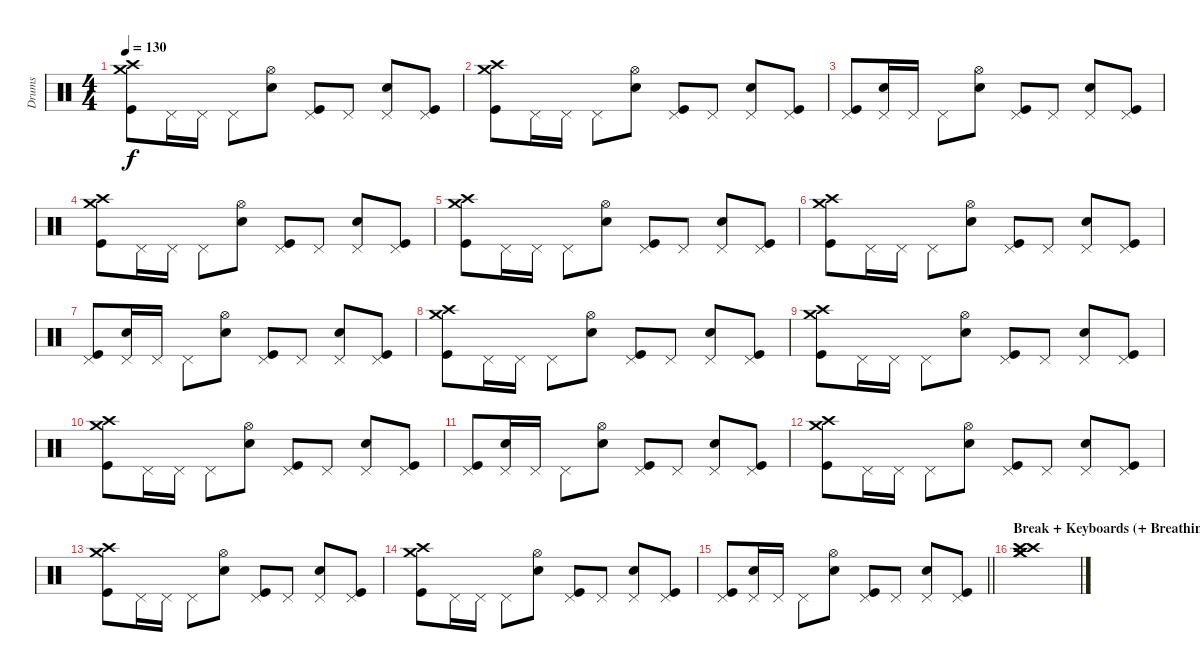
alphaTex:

\track ("Drums" "Drums") {instrument percussion}
\staff {score}
\articulation defaults
\ts (4 4)
\tempo 130
\clef neutral
\ks c
("Kick (hit)" "Crash high (hit)" "Crash medium (hit)").8{dy f} "Pedal Hi-Hat (hit)".16 "Pedal Hi-Hat (hit)".16 "Pedal Hi-Hat (hit)".8 ("Hi-Hat (open)" "Snare (hit) 2").8 ("Pedal Hi-Hat (hit)" "Kick (hit)").8 "Pedal Hi-Hat (hit)".8 ("Pedal Hi-Hat (hit)" "Snare (hit) 2").8 ("Pedal Hi-Hat (hit)" "Kick (hit)").8 |
("Kick (hit)" "Crash high (hit)" "Crash medium (hit)").8 "Pedal Hi-Hat (hit)".16 "Pedal Hi-Hat (hit)".16 "Pedal Hi-Hat (hit)".8 ("Hi-Hat (open)" "Snare (hit) 2").8 ("Pedal Hi-Hat (hit)" "Kick (hit)").8 "Pedal Hi-Hat (hit)".8 ("Pedal Hi-Hat (hit)" "Snare (hit) 2").8 ("Pedal Hi-Hat (hit)" "Kick (hit)").8 |
("Pedal Hi-Hat (hit)" "Kick (hit)").8 ("Pedal Hi-Hat (hit)" "Snare (hit) 2").16 "Pedal Hi-Hat (hit)".16 "Pedal Hi-Hat (hit)".8 ("Hi-Hat (open)" "Snare (hit) 2").8 ("Pedal Hi-Hat (hit)" "Kick (hit)").8 "Pedal Hi-Hat (hit)".8 ("Pedal Hi-Hat (hit)" "Snare (hit) 2").8 ("Pedal Hi-Hat (hit)" "Kick (hit)").8 |
("Kick (hit)" "Crash high (hit)" "Crash medium (hit)").8 "Pedal Hi-Hat (hit)".16 "Pedal Hi-Hat (hit)".16 "Pedal Hi-Hat (hit)".8 ("Hi-Hat (open)" "Snare (hit) 2").8 ("Pedal Hi-Hat (hit)" "Kick (hit)").8 "Pedal Hi-Hat (hit)".8 ("Pedal Hi-Hat (hit)" "Snare (hit) 2").8 ("Pedal Hi-Hat (hit)" "Kick (hit)").8 |
("Kick (hit)" "Crash high (hit)" "Crash medium (hit)").8 "Pedal Hi-Hat (hit)".16 "Pedal Hi-Hat (hit)".16 "Pedal Hi-Hat (hit)".8 ("Hi-Hat (open)" "Snare (hit) 2").8 ("Pedal Hi-Hat (hit)" "Kick (hit)").8 "Pedal Hi-Hat (hit)".8 ("Pedal Hi-Hat (hit)" "Snare (hit) 2").8 ("Pedal Hi-Hat (hit)" "Kick (hit)").8 |
("Kick (hit)" "Crash high (hit)" "Crash medium (hit)").8 "Pedal Hi-Hat (hit)".16 "Pedal Hi-Hat (hit)".16 "Pedal Hi-Hat (hit)".8 ("Hi-Hat (open)" "Snare (hit) 2").8 ("Pedal Hi-Hat (hit)" "Kick (hit)").8 "Pedal Hi-Hat (hit)".8 ("Pedal Hi-Hat (hit)" "Snare (hit) 2").8 ("Pedal Hi-Hat (hit)" "Kick (hit)").8 |
("Pedal Hi-Hat (hit)" "Kick (hit)").8 ("Pedal Hi-Hat (hit)" "Snare (hit) 2").16 "Pedal Hi-Hat (hit)".16 "Pedal Hi-Hat (hit)".8 ("Hi-Hat (open)" "Snare (hit) 2").8 ("Pedal Hi-Hat (hit)" "Kick (hit)").8 "Pedal Hi-Hat (hit)".8 ("Pedal Hi-Hat (hit)" "Snare (hit) 2").8 ("Pedal Hi-Hat (hit)" "Kick (hit)").8 |
("Kick (hit)" "Crash high (hit)" "Crash medium (hit)").8 "Pedal Hi-Hat (hit)".16 "Pedal Hi-Hat (hit)".16 "Pedal Hi-Hat (hit)".8 ("Hi-Hat (open)" "Snare (hit) 2").8 ("Pedal Hi-Hat (hit)" "Kick (hit)").8 "Pedal Hi-Hat (hit)".8 ("Pedal Hi-Hat (hit)" "Snare (hit) 2").8 ("Pedal Hi-Hat (hit)" "Kick (hit)").8 |
("Kick (hit)" "Crash high (hit)" "Crash medium (hit)").8 "Pedal Hi-Hat (hit)".16 "Pedal Hi-Hat (hit)".16 "Pedal Hi-Hat (hit)".8 ("Hi-Hat (open)" "Snare (hit) 2").8 ("Pedal Hi-Hat (hit)" "Kick (hit)").8 "Pedal Hi-Hat (hit)".8 ("Pedal Hi-Hat (hit)" "Snare (hit) 2").8 ("Pedal Hi-Hat (hit)" "Kick (hit)").8 |
("Kick (hit)" "Crash high (hit)" "Crash medium (hit)").8 "Pedal Hi-Hat (hit)".16 "Pedal Hi-Hat (hit)".16 "Pedal Hi-Hat (hit)".8 ("Hi-Hat (open)" "Snare (hit) 2").8 ("Pedal Hi-Hat (hit)" "Kick (hit)").8 "Pedal Hi-Hat (hit)".8 ("Pedal Hi-Hat (hit)" "Snare (hit) 2").8 ("Pedal Hi-Hat (hit)" "Kick (hit)").8 |
("Pedal Hi-Hat (hit)" "Kick (hit)").8 ("Pedal Hi-Hat (hit)" "Snare (hit) 2").16 "Pedal Hi-Hat (hit)".16 "Pedal Hi-Hat (hit)".8 ("Hi-Hat (open)" "Snare (hit) 2").8 ("Pedal Hi-Hat (hit)" "Kick (hit)").8 "Pedal Hi-Hat (hit)".8 ("Pedal Hi-Hat (hit)" "Snare (hit) 2").8 ("Pedal Hi-Hat (hit)" "Kick (hit)").8 |
("Kick (hit)" "Crash high (hit)" "Crash medium (hit)").8 "Pedal Hi-Hat (hit)".16 "Pedal Hi-Hat (hit)".16 "Pedal Hi-Hat (hit)".8 ("Hi-Hat (open)" "Snare (hit) 2").8 ("Pedal Hi-Hat (hit)" "Kick (hit)").8 "Pedal Hi-Hat (hit)".8 ("Pedal Hi-Hat (hit)" "Snare (hit) 2").8 ("Pedal Hi-Hat (hit)" "Kick (hit)").8 |
("Kick (hit)" "Crash high (hit)" "Crash medium (hit)").8 "Pedal Hi-Hat (hit)".16 "Pedal Hi-Hat (hit)".16 "Pedal Hi-Hat (hit)".8 ("Hi-Hat (open)" "Snare (hit) 2").8 ("Pedal Hi-Hat (hit)" "Kick (hit)").8 "Pedal Hi-Hat (hit)".8 ("Pedal Hi-Hat (hit)" "Snare (hit) 2").8 ("Pedal Hi-Hat (hit)" "Kick (hit)").8 |
("Kick (hit)" "Crash high (hit)" "Crash medium (hit)").8 "Pedal Hi-Hat (hit)".16 "Pedal Hi-Hat (hit)".16 "Pedal Hi-Hat (hit)".8 ("Hi-Hat (open)" "Snare (hit) 2").8 ("Pedal Hi-Hat (hit)" "Kick (hit)").8 "Pedal Hi-Hat (hit)".8 ("Pedal Hi-Hat (hit)" "Snare (hit) 2").8 ("Pedal Hi-Hat (hit)" "Kick (hit)").8 |
\barLineRight lightlight
("Pedal Hi-Hat (hit)" "Kick (hit)").8 ("Pedal Hi-Hat (hit)" "Snare (hit) 2").16 "Pedal Hi-Hat (hit)".16 "Pedal Hi-Hat (hit)".8 ("Hi-Hat (open)" "Snare (hit) 2").8 ("Pedal Hi-Hat (hit)" "Kick (hit)").8 "Pedal Hi-Hat (hit)".8 ("Pedal Hi-Hat (hit)" "Snare (hit) 2").8 ("Pedal Hi-Hat (hit)" "Kick (hit)").8 |
\section ("" "Break + Keyboards (+ Breathing noise)")
("Crash high (hit)" "Crash high (hit)" "Crash medium (hit)" "Crash medium (hit)").1{volume 8}
